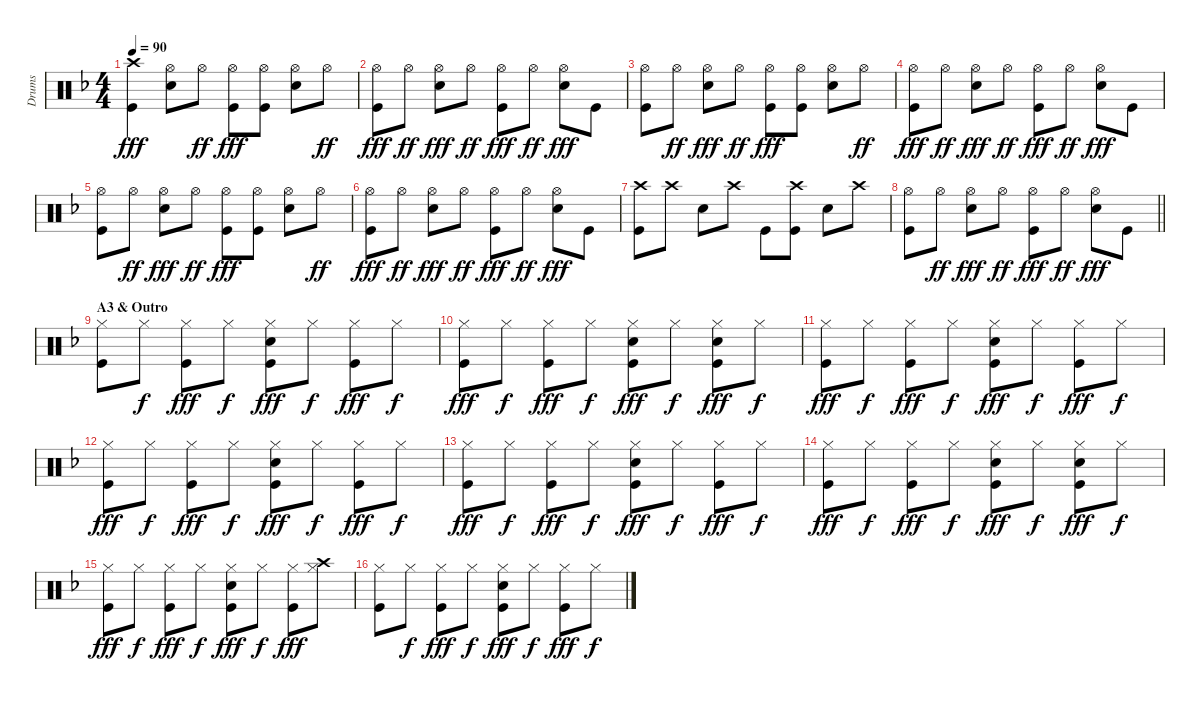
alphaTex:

\track ("Drums" "Drums") {instrument percussion}
\staff {score}
\articulation defaults
\ts (4 4)
\tempo 90
\clef neutral
\ks f
("Crash high (hit)" "Kick (hit)").4{dy fff} ("Hi-Hat (open)" "Snare (hit) 2").8 "Hi-Hat (open)".8{dy ff} ("Hi-Hat (open)" "Kick (hit)").8{dy fff} ("Hi-Hat (open)" "Kick (hit)").8 ("Hi-Hat (open)" "Snare (hit) 2").8 "Hi-Hat (open)".8{dy ff} |
("Hi-Hat (open)" "Kick (hit)").8{dy fff} "Hi-Hat (open)".8{dy ff} ("Hi-Hat (open)" "Snare (hit) 2").8{dy fff} "Hi-Hat (open)".8{dy ff} ("Hi-Hat (open)" "Kick (hit)").8{dy fff} "Hi-Hat (open)".8{dy ff} ("Hi-Hat (open)" "Snare (hit) 2").8{dy fff} "Kick (hit)".8 |
("Hi-Hat (open)" "Kick (hit)").8 "Hi-Hat (open)".8{dy ff} ("Hi-Hat (open)" "Snare (hit) 2").8{dy fff} "Hi-Hat (open)".8{dy ff} ("Hi-Hat (open)" "Kick (hit)").8{dy fff} ("Hi-Hat (open)" "Kick (hit)").8 ("Hi-Hat (open)" "Snare (hit) 2").8 "Hi-Hat (open)".8{dy ff} |
("Hi-Hat (open)" "Kick (hit)").8{dy fff} "Hi-Hat (open)".8{dy ff} ("Hi-Hat (open)" "Snare (hit) 2").8{dy fff} "Hi-Hat (open)".8{dy ff} ("Hi-Hat (open)" "Kick (hit)").8{dy fff} "Hi-Hat (open)".8{dy ff} ("Hi-Hat (open)" "Snare (hit) 2").8{dy fff} "Kick (hit)".8 |
("Hi-Hat (open)" "Kick (hit)").8 "Hi-Hat (open)".8{dy ff} ("Hi-Hat (open)" "Snare (hit) 2").8{dy fff} "Hi-Hat (open)".8{dy ff} ("Hi-Hat (open)" "Kick (hit)").8{dy fff} ("Hi-Hat (open)" "Kick (hit)").8 ("Hi-Hat (open)" "Snare (hit) 2").8 "Hi-Hat (open)".8{dy ff} |
("Hi-Hat (open)" "Kick (hit)").8{dy fff} "Hi-Hat (open)".8{dy ff} ("Hi-Hat (open)" "Snare (hit) 2").8{dy fff} "Hi-Hat (open)".8{dy ff} ("Hi-Hat (open)" "Kick (hit)").8{dy fff} "Hi-Hat (open)".8{dy ff} ("Hi-Hat (open)" "Snare (hit) 2").8{dy fff} "Kick (hit)".8 |
("Crash high (hit)" "Kick (hit)").8 "Crash high (hit)".8 "Snare (hit) 2".8 "Crash high (hit)".8 "Kick (hit)".8 ("Crash high (hit)" "Kick (hit)").8 "Snare (hit) 2".8 "Crash high (hit)".8 |
\barLineRight lightlight
("Hi-Hat (open)" "Kick (hit)").8 "Hi-Hat (open)".8{dy ff} ("Hi-Hat (open)" "Snare (hit) 2").8{dy fff} "Hi-Hat (open)".8{dy ff} ("Hi-Hat (open)" "Kick (hit)").8{dy fff} "Hi-Hat (open)".8{dy ff} ("Hi-Hat (open)" "Snare (hit) 2").8{dy fff} "Kick (hit)".8 |
\section ("" "A3 & Outro")
("Hi-Hat (closed)" "Kick (hit)").8 "Hi-Hat (closed)".8{dy f} ("Hi-Hat (closed)" "Kick (hit)").8{dy fff} "Hi-Hat (closed)".8{dy f} ("Hi-Hat (closed)" "Snare (hit) 2" "Kick (hit)").8{dy fff} "Hi-Hat (closed)".8{dy f} ("Hi-Hat (closed)" "Kick (hit)").8{dy fff} "Hi-Hat (closed)".8{dy f} |
("Hi-Hat (closed)" "Kick (hit)").8{dy fff} "Hi-Hat (closed)".8{dy f} ("Hi-Hat (closed)" "Kick (hit)").8{dy fff} "Hi-Hat (closed)".8{dy f} ("Hi-Hat (closed)" "Snare (hit) 2" "Kick (hit)").8{dy fff} "Hi-Hat (closed)".8{dy f} ("Hi-Hat (closed)" "Snare (hit) 2" "Kick (hit)").8{dy fff} "Hi-Hat (closed)".8{dy f} |
("Hi-Hat (closed)" "Kick (hit)").8{dy fff} "Hi-Hat (closed)".8{dy f} ("Hi-Hat (closed)" "Kick (hit)").8{dy fff} "Hi-Hat (closed)".8{dy f} ("Hi-Hat (closed)" "Snare (hit) 2" "Kick (hit)").8{dy fff} "Hi-Hat (closed)".8{dy f} ("Hi-Hat (closed)" "Kick (hit)").8{dy fff} "Hi-Hat (closed)".8{dy f} |
("Hi-Hat (closed)" "Kick (hit)").8{dy fff} "Hi-Hat (closed)".8{dy f} ("Hi-Hat (closed)" "Kick (hit)").8{dy fff} "Hi-Hat (closed)".8{dy f} ("Hi-Hat (closed)" "Snare (hit) 2" "Kick (hit)").8{dy fff} "Hi-Hat (closed)".8{dy f} ("Hi-Hat (closed)" "Kick (hit)").8{dy fff} "Hi-Hat (closed)".8{dy f} |
("Hi-Hat (closed)" "Kick (hit)").8{dy fff} "Hi-Hat (closed)".8{dy f} ("Hi-Hat (closed)" "Kick (hit)").8{dy fff} "Hi-Hat (closed)".8{dy f} ("Hi-Hat (closed)" "Snare (hit) 2" "Kick (hit)").8{dy fff} "Hi-Hat (closed)".8{dy f} ("Hi-Hat (closed)" "Kick (hit)").8{dy fff} "Hi-Hat (closed)".8{dy f} |
("Hi-Hat (closed)" "Kick (hit)").8{dy fff} "Hi-Hat (closed)".8{dy f} ("Hi-Hat (closed)" "Kick (hit)").8{dy fff} "Hi-Hat (closed)".8{dy f} ("Hi-Hat (closed)" "Snare (hit) 2" "Kick (hit)").8{dy fff} "Hi-Hat (closed)".8{dy f} ("Hi-Hat (closed)" "Snare (hit) 2" "Kick (hit)").8{dy fff} "Hi-Hat (closed)".8{dy f} |
("Hi-Hat (closed)" "Kick (hit)").8{dy fff} "Hi-Hat (closed)".8{dy f} ("Hi-Hat (closed)" "Kick (hit)").8{dy fff} "Hi-Hat (closed)".8{dy f} ("Hi-Hat (closed)" "Snare (hit) 2" "Kick (hit)").8{dy fff} "Hi-Hat (closed)".8{dy f} ("Hi-Hat (closed)" "Kick (hit)").8{dy fff} ("Hi-Hat (closed)" "Crash high (hit)").8 |
("Hi-Hat (closed)" "Kick (hit)").8 "Hi-Hat (closed)".8{dy f} ("Hi-Hat (closed)" "Kick (hit)").8{dy fff} "Hi-Hat (closed)".8{dy f} ("Hi-Hat (closed)" "Snare (hit) 2" "Kick (hit)").8{dy fff} "Hi-Hat (closed)".8{dy f} ("Hi-Hat (closed)" "Kick (hit)").8{dy fff} "Hi-Hat (closed)".8{dy f}
